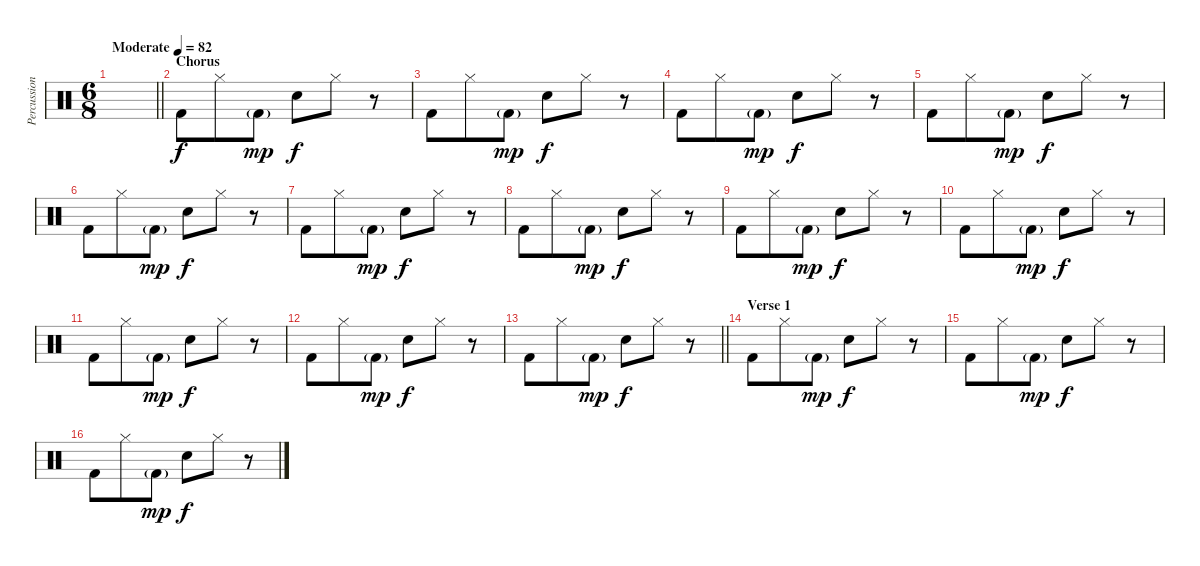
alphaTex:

\track ("Percussion" "Percussion") {instrument percussion}
\staff {score}
\articulation defaults
\ts (6 8)
\tempo (82 "Moderate")
\clef neutral
\barLineRight lightlight
\ks c
|
\section ("" "Chorus")
"Kick (hit) 2".8 "Hi-Hat (closed)".8 "Kick (hit) 2"{g}.8{dy mp} "Snare (hit) 2".8{dy f} "Hi-Hat (closed)".8 r.8 |
"Kick (hit) 2".8 "Hi-Hat (closed)".8 "Kick (hit) 2"{g}.8{dy mp} "Snare (hit) 2".8{dy f} "Hi-Hat (closed)".8 r.8 |
"Kick (hit) 2".8 "Hi-Hat (closed)".8 "Kick (hit) 2"{g}.8{dy mp} "Snare (hit) 2".8{dy f} "Hi-Hat (closed)".8 r.8 |
"Kick (hit) 2".8 "Hi-Hat (closed)".8 "Kick (hit) 2"{g}.8{dy mp} "Snare (hit) 2".8{dy f} "Hi-Hat (closed)".8 r.8 |
"Kick (hit) 2".8 "Hi-Hat (closed)".8 "Kick (hit) 2"{g}.8{dy mp} "Snare (hit) 2".8{dy f} "Hi-Hat (closed)".8 r.8 |
"Kick (hit) 2".8 "Hi-Hat (closed)".8 "Kick (hit) 2"{g}.8{dy mp} "Snare (hit) 2".8{dy f} "Hi-Hat (closed)".8 r.8 |
"Kick (hit) 2".8 "Hi-Hat (closed)".8 "Kick (hit) 2"{g}.8{dy mp} "Snare (hit) 2".8{dy f} "Hi-Hat (closed)".8 r.8 |
"Kick (hit) 2".8 "Hi-Hat (closed)".8 "Kick (hit) 2"{g}.8{dy mp} "Snare (hit) 2".8{dy f} "Hi-Hat (closed)".8 r.8 |
"Kick (hit) 2".8 "Hi-Hat (closed)".8 "Kick (hit) 2"{g}.8{dy mp} "Snare (hit) 2".8{dy f} "Hi-Hat (closed)".8 r.8 |
"Kick (hit) 2".8 "Hi-Hat (closed)".8 "Kick (hit) 2"{g}.8{dy mp} "Snare (hit) 2".8{dy f} "Hi-Hat (closed)".8 r.8 |
"Kick (hit) 2".8 "Hi-Hat (closed)".8 "Kick (hit) 2"{g}.8{dy mp} "Snare (hit) 2".8{dy f} "Hi-Hat (closed)".8 r.8 |
\barLineRight lightlight "Kick (hit) 2".8 "Hi-Hat (closed)".8 "Kick (hit) 2"{g}.8{dy mp} "Snare (hit) 2".8{dy f} "Hi-Hat (closed)".8
r.8 |
\section ("" "Verse 1")
"Kick (hit) 2".8 "Hi-Hat (closed)".8 "Kick (hit) 2"{g}.8{dy mp} "Snare (hit) 2".8{dy f} "Hi-Hat (closed)".8 r.8 |
"Kick (hit) 2".8 "Hi-Hat (closed)".8 "Kick (hit) 2"{g}.8{dy mp} "Snare (hit) 2".8{dy f} "Hi-Hat (closed)".8 r.8 |
"Kick (hit) 2".8 "Hi-Hat (closed)".8 "Kick (hit) 2"{g}.8{dy mp} "Snare (hit) 2".8{dy f} "Hi-Hat (closed)".8 r.8
